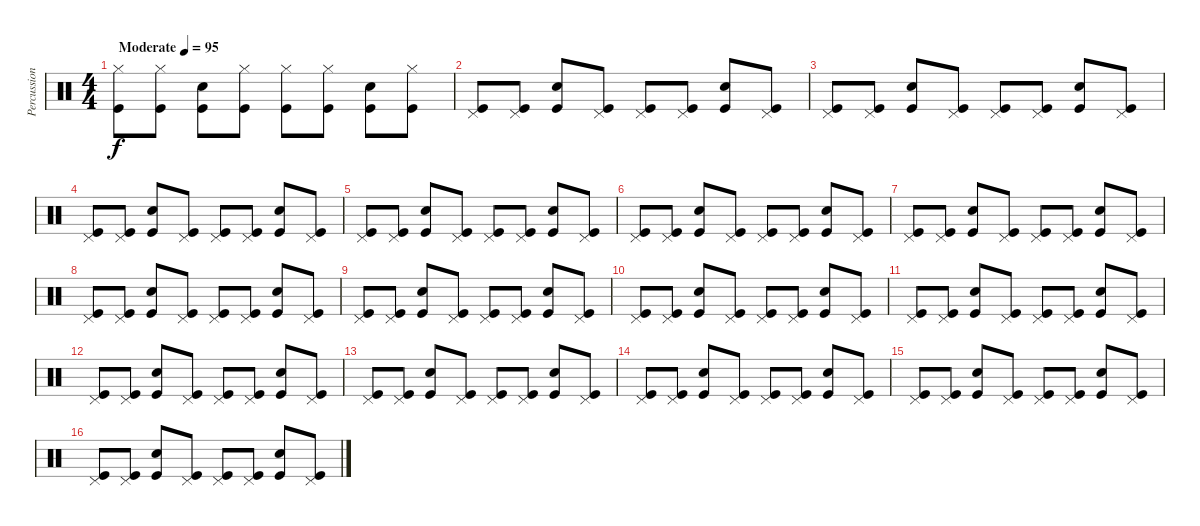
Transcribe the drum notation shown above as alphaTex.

\track ("Percussion" "Percussion") {instrument percussion}
\staff {score}
\articulation defaults
\ts (4 4)
\tempo (95 "Moderate")
\clef neutral
\ks c
("Hi-Hat (closed)" "Kick (hit)").8{dy f} ("Hi-Hat (closed)" "Kick (hit)").8 ("Electric Snare (hit)" "Kick (hit)").8 ("Hi-Hat (closed)" "Kick (hit)").8 ("Hi-Hat (closed)" "Kick (hit)").8 ("Hi-Hat (closed)" "Kick (hit)").8 ("Electric Snare (hit)" "Kick (hit)").8 ("Hi-Hat (closed)" "Kick (hit)").8 |
("Pedal Hi-Hat (hit)" "Kick (hit)").8 ("Pedal Hi-Hat (hit)" "Kick (hit)").8 ("Electric Snare (hit)" "Kick (hit)").8 ("Pedal Hi-Hat (hit)" "Kick (hit)").8 ("Pedal Hi-Hat (hit)" "Kick (hit)").8 ("Pedal Hi-Hat (hit)" "Kick (hit)").8 ("Electric Snare (hit)" "Kick (hit)").8 ("Pedal Hi-Hat (hit)" "Kick (hit)").8 |
("Pedal Hi-Hat (hit)" "Kick (hit)").8 ("Pedal Hi-Hat (hit)" "Kick (hit)").8 ("Electric Snare (hit)" "Kick (hit)").8 ("Pedal Hi-Hat (hit)" "Kick (hit)").8 ("Pedal Hi-Hat (hit)" "Kick (hit)").8 ("Pedal Hi-Hat (hit)" "Kick (hit)").8 ("Electric Snare (hit)" "Kick (hit)").8 ("Pedal Hi-Hat (hit)" "Kick (hit)").8 |
("Pedal Hi-Hat (hit)" "Kick (hit)").8 ("Pedal Hi-Hat (hit)" "Kick (hit)").8 ("Electric Snare (hit)" "Kick (hit)").8 ("Pedal Hi-Hat (hit)" "Kick (hit)").8 ("Pedal Hi-Hat (hit)" "Kick (hit)").8 ("Pedal Hi-Hat (hit)" "Kick (hit)").8 ("Electric Snare (hit)" "Kick (hit)").8 ("Pedal Hi-Hat (hit)" "Kick (hit)").8 |
("Pedal Hi-Hat (hit)" "Kick (hit)").8 ("Pedal Hi-Hat (hit)" "Kick (hit)").8 ("Electric Snare (hit)" "Kick (hit)").8 ("Pedal Hi-Hat (hit)" "Kick (hit)").8 ("Pedal Hi-Hat (hit)" "Kick (hit)").8 ("Pedal Hi-Hat (hit)" "Kick (hit)").8 ("Electric Snare (hit)" "Kick (hit)").8 ("Pedal Hi-Hat (hit)" "Kick (hit)").8 |
("Pedal Hi-Hat (hit)" "Kick (hit)").8 ("Pedal Hi-Hat (hit)" "Kick (hit)").8 ("Electric Snare (hit)" "Kick (hit)").8 ("Pedal Hi-Hat (hit)" "Kick (hit)").8 ("Pedal Hi-Hat (hit)" "Kick (hit)").8 ("Pedal Hi-Hat (hit)" "Kick (hit)").8 ("Electric Snare (hit)" "Kick (hit)").8 ("Pedal Hi-Hat (hit)" "Kick (hit)").8 |
("Pedal Hi-Hat (hit)" "Kick (hit)").8 ("Pedal Hi-Hat (hit)" "Kick (hit)").8 ("Electric Snare (hit)" "Kick (hit)").8 ("Pedal Hi-Hat (hit)" "Kick (hit)").8 ("Pedal Hi-Hat (hit)" "Kick (hit)").8 ("Pedal Hi-Hat (hit)" "Kick (hit)").8 ("Electric Snare (hit)" "Kick (hit)").8 ("Pedal Hi-Hat (hit)" "Kick (hit)").8 |
("Pedal Hi-Hat (hit)" "Kick (hit)").8 ("Pedal Hi-Hat (hit)" "Kick (hit)").8 ("Electric Snare (hit)" "Kick (hit)").8 ("Pedal Hi-Hat (hit)" "Kick (hit)").8 ("Pedal Hi-Hat (hit)" "Kick (hit)").8 ("Pedal Hi-Hat (hit)" "Kick (hit)").8 ("Electric Snare (hit)" "Kick (hit)").8 ("Pedal Hi-Hat (hit)" "Kick (hit)").8 |
("Pedal Hi-Hat (hit)" "Kick (hit)").8 ("Pedal Hi-Hat (hit)" "Kick (hit)").8 ("Electric Snare (hit)" "Kick (hit)").8 ("Pedal Hi-Hat (hit)" "Kick (hit)").8 ("Pedal Hi-Hat (hit)" "Kick (hit)").8 ("Pedal Hi-Hat (hit)" "Kick (hit)").8 ("Electric Snare (hit)" "Kick (hit)").8 ("Pedal Hi-Hat (hit)" "Kick (hit)").8 |
("Pedal Hi-Hat (hit)" "Kick (hit)").8 ("Pedal Hi-Hat (hit)" "Kick (hit)").8 ("Electric Snare (hit)" "Kick (hit)").8 ("Pedal Hi-Hat (hit)" "Kick (hit)").8 ("Pedal Hi-Hat (hit)" "Kick (hit)").8 ("Pedal Hi-Hat (hit)" "Kick (hit)").8 ("Electric Snare (hit)" "Kick (hit)").8 ("Pedal Hi-Hat (hit)" "Kick (hit)").8 |
("Pedal Hi-Hat (hit)" "Kick (hit)").8 ("Pedal Hi-Hat (hit)" "Kick (hit)").8 ("Electric Snare (hit)" "Kick (hit)").8 ("Pedal Hi-Hat (hit)" "Kick (hit)").8 ("Pedal Hi-Hat (hit)" "Kick (hit)").8 ("Pedal Hi-Hat (hit)" "Kick (hit)").8 ("Electric Snare (hit)" "Kick (hit)").8 ("Pedal Hi-Hat (hit)" "Kick (hit)").8 |
("Pedal Hi-Hat (hit)" "Kick (hit)").8 ("Pedal Hi-Hat (hit)" "Kick (hit)").8 ("Electric Snare (hit)" "Kick (hit)").8 ("Pedal Hi-Hat (hit)" "Kick (hit)").8 ("Pedal Hi-Hat (hit)" "Kick (hit)").8 ("Pedal Hi-Hat (hit)" "Kick (hit)").8 ("Electric Snare (hit)" "Kick (hit)").8 ("Pedal Hi-Hat (hit)" "Kick (hit)").8 |
("Pedal Hi-Hat (hit)" "Kick (hit)").8 ("Pedal Hi-Hat (hit)" "Kick (hit)").8 ("Electric Snare (hit)" "Kick (hit)").8 ("Pedal Hi-Hat (hit)" "Kick (hit)").8 ("Pedal Hi-Hat (hit)" "Kick (hit)").8 ("Pedal Hi-Hat (hit)" "Kick (hit)").8 ("Electric Snare (hit)" "Kick (hit)").8 ("Pedal Hi-Hat (hit)" "Kick (hit)").8 |
("Pedal Hi-Hat (hit)" "Kick (hit)").8 ("Pedal Hi-Hat (hit)" "Kick (hit)").8 ("Electric Snare (hit)" "Kick (hit)").8 ("Pedal Hi-Hat (hit)" "Kick (hit)").8 ("Pedal Hi-Hat (hit)" "Kick (hit)").8 ("Pedal Hi-Hat (hit)" "Kick (hit)").8 ("Electric Snare (hit)" "Kick (hit)").8 ("Pedal Hi-Hat (hit)" "Kick (hit)").8 |
("Pedal Hi-Hat (hit)" "Kick (hit)").8 ("Pedal Hi-Hat (hit)" "Kick (hit)").8 ("Electric Snare (hit)" "Kick (hit)").8 ("Pedal Hi-Hat (hit)" "Kick (hit)").8 ("Pedal Hi-Hat (hit)" "Kick (hit)").8 ("Pedal Hi-Hat (hit)" "Kick (hit)").8 ("Electric Snare (hit)" "Kick (hit)").8 ("Pedal Hi-Hat (hit)" "Kick (hit)").8 |
("Pedal Hi-Hat (hit)" "Kick (hit)").8 ("Pedal Hi-Hat (hit)" "Kick (hit)").8 ("Electric Snare (hit)" "Kick (hit)").8 ("Pedal Hi-Hat (hit)" "Kick (hit)").8 ("Pedal Hi-Hat (hit)" "Kick (hit)").8 ("Pedal Hi-Hat (hit)" "Kick (hit)").8 ("Electric Snare (hit)" "Kick (hit)").8 ("Pedal Hi-Hat (hit)" "Kick (hit)").8
